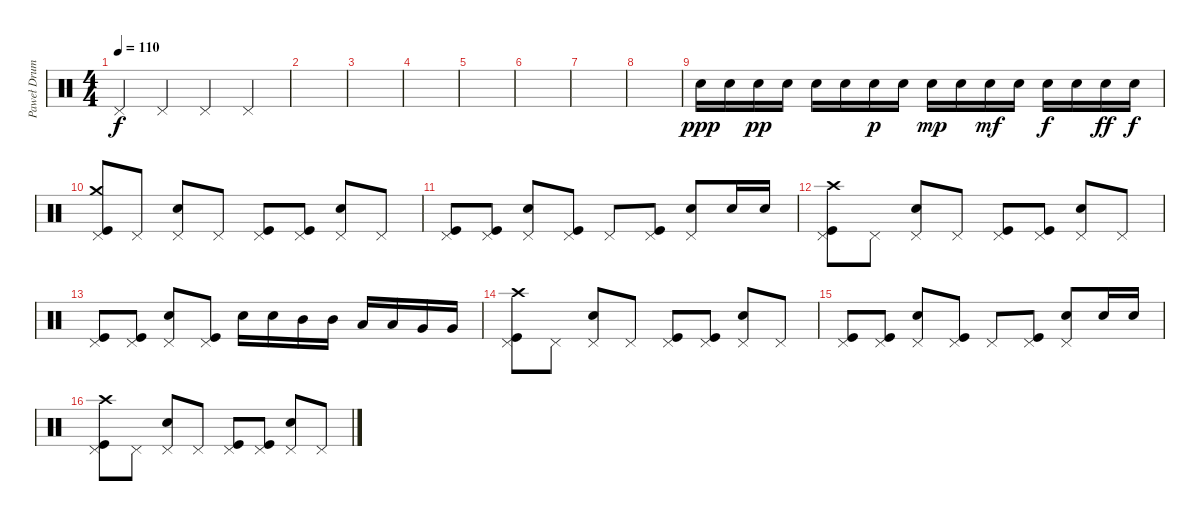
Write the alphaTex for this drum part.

\track ("Paweł Drums" "Paweł Drum") {instrument percussion}
\staff {score}
\articulation defaults
\ts (4 4)
\tempo 110
\tempo 120
\tempo 110
\clef neutral
\ks c "Pedal Hi-Hat (hit)".4{dy f} "Pedal Hi-Hat (hit)".4 "Pedal Hi-Hat (hit)".4 "Pedal Hi-Hat (hit)".4
|
|
|
|
|
|
|
|
"Snare (hit) 2".16{dy ppp} "Snare (hit) 2".16 "Snare (hit) 2".16{dy pp} "Snare (hit) 2".16 "Snare (hit) 2".16 "Snare (hit) 2".16 "Snare (hit) 2".16{dy p} "Snare (hit) 2".16 "Snare (hit) 2".16{dy mp} "Snare (hit) 2".16 "Snare (hit) 2".16{dy mf} "Snare (hit) 2".16 "Snare (hit) 2".16{dy f} "Snare (hit) 2".16 "Snare (hit) 2".16{dy ff} "Snare (hit) 2".16{dy f} |
("Pedal Hi-Hat (hit)" "Crash medium (hit)" "Kick (hit)").8 "Pedal Hi-Hat (hit)".8 ("Pedal Hi-Hat (hit)" "Snare (hit) 2").8 "Pedal Hi-Hat (hit)".8 ("Pedal Hi-Hat (hit)" "Kick (hit)").8 ("Pedal Hi-Hat (hit)" "Kick (hit)").8 ("Pedal Hi-Hat (hit)" "Snare (hit) 2").8 "Pedal Hi-Hat (hit)".8 |
("Pedal Hi-Hat (hit)" "Kick (hit)").8 ("Pedal Hi-Hat (hit)" "Kick (hit)").8 ("Pedal Hi-Hat (hit)" "Snare (hit) 2").8 ("Pedal Hi-Hat (hit)" "Kick (hit)").8 "Pedal Hi-Hat (hit)".8 ("Pedal Hi-Hat (hit)" "Kick (hit)").8 ("Pedal Hi-Hat (hit)" "Snare (hit) 2").8 "Snare (hit) 2".16 "Snare (hit) 2".16 |
("Pedal Hi-Hat (hit)" "Crash high (hit)" "Kick (hit)").8 "Pedal Hi-Hat (hit)".8 ("Pedal Hi-Hat (hit)" "Snare (hit) 2").8 "Pedal Hi-Hat (hit)".8 ("Pedal Hi-Hat (hit)" "Kick (hit)").8 ("Pedal Hi-Hat (hit)" "Kick (hit)").8 ("Pedal Hi-Hat (hit)" "Snare (hit) 2").8 "Pedal Hi-Hat (hit)".8 |
("Pedal Hi-Hat (hit)" "Kick (hit)").8 ("Pedal Hi-Hat (hit)" "Kick (hit)").8 ("Pedal Hi-Hat (hit)" "Snare (hit) 2").8 ("Pedal Hi-Hat (hit)" "Kick (hit)").8 "Snare (hit) 2".16 "Snare (hit) 2".16 "Mid Tom (hit)".16 "Mid Tom (hit)".16 "Low Tom (hit)".16 "Low Tom (hit)".16 "Very Low Tom (hit)".16 "Very Low Tom (hit)".16 |
("Pedal Hi-Hat (hit)" "Crash high (hit)" "Kick (hit)").8 "Pedal Hi-Hat (hit)".8 ("Pedal Hi-Hat (hit)" "Snare (hit) 2").8 "Pedal Hi-Hat (hit)".8 ("Pedal Hi-Hat (hit)" "Kick (hit)").8 ("Pedal Hi-Hat (hit)" "Kick (hit)").8 ("Pedal Hi-Hat (hit)" "Snare (hit) 2").8 "Pedal Hi-Hat (hit)".8 |
("Pedal Hi-Hat (hit)" "Kick (hit)").8 ("Pedal Hi-Hat (hit)" "Kick (hit)").8 ("Pedal Hi-Hat (hit)" "Snare (hit) 2").8 ("Pedal Hi-Hat (hit)" "Kick (hit)").8 "Pedal Hi-Hat (hit)".8 ("Pedal Hi-Hat (hit)" "Kick (hit)").8 ("Pedal Hi-Hat (hit)" "Snare (hit) 2").8 "Snare (hit) 2".16 "Snare (hit) 2".16 |
("Pedal Hi-Hat (hit)" "Crash high (hit)" "Kick (hit)").8 "Pedal Hi-Hat (hit)".8 ("Pedal Hi-Hat (hit)" "Snare (hit) 2").8 "Pedal Hi-Hat (hit)".8 ("Pedal Hi-Hat (hit)" "Kick (hit)").8 ("Pedal Hi-Hat (hit)" "Kick (hit)").8 ("Pedal Hi-Hat (hit)" "Snare (hit) 2").8 "Pedal Hi-Hat (hit)".8
